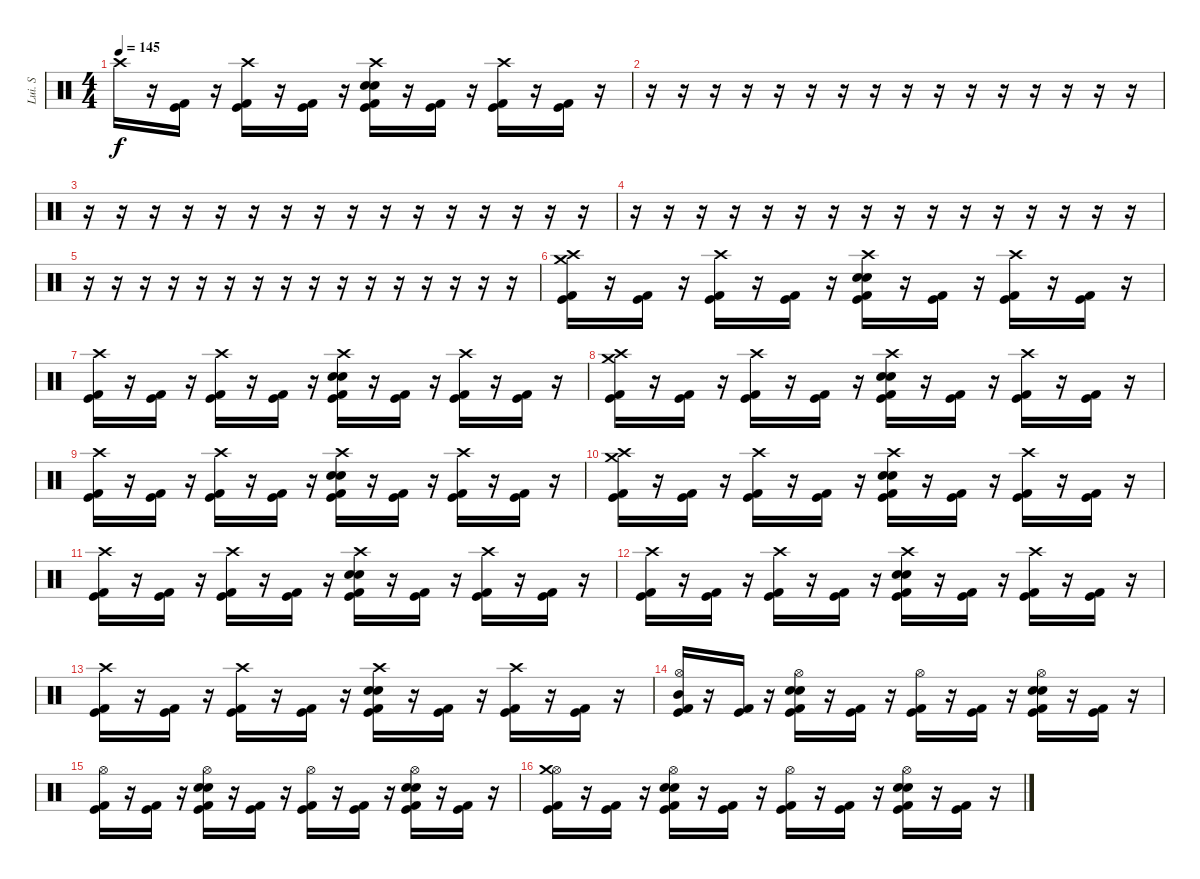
\track ("Lui. S" "Lui. S") {instrument percussion}
\staff {score}
\articulation defaults
\ts (4 4)
\tempo 145
\clef neutral
\ks c "Crash high (hit)".16{dy f}
r.16 ("Kick (hit)" "Kick (hit) 2").16 r.16 ("Crash high (hit)" "Kick (hit)" "Kick (hit) 2").16 r.16 ("Kick (hit)" "Kick (hit) 2").16 r.16 ("Crash high (hit)" "Electric Snare (hit)" "Snare (hit) 2" "Kick (hit)" "Kick (hit) 2").16 r.16 ("Kick (hit)" "Kick (hit) 2").16 r.16 ("Crash high (hit)" "Kick (hit)" "Kick (hit) 2").16 r.16 ("Kick (hit)" "Kick (hit) 2").16 r.16 |
r.16 r.16 r.16 r.16 r.16 r.16 r.16 r.16 r.16 r.16 r.16 r.16 r.16 r.16 r.16 r.16 |
r.16 r.16 r.16 r.16 r.16 r.16 r.16 r.16 r.16 r.16 r.16 r.16 r.16 r.16 r.16 r.16 |
r.16 r.16 r.16 r.16 r.16 r.16 r.16 r.16 r.16 r.16 r.16 r.16 r.16 r.16 r.16 r.16 |
r.16 r.16 r.16 r.16 r.16 r.16 r.16 r.16 r.16 r.16 r.16 r.16 r.16 r.16 r.16 r.16 |
("Crash high (hit)" "Crash medium (hit)" "Kick (hit)" "Kick (hit) 2").16 r.16 ("Kick (hit)" "Kick (hit) 2").16 r.16 ("Crash high (hit)" "Kick (hit)" "Kick (hit) 2").16 r.16 ("Kick (hit)" "Kick (hit) 2").16 r.16 ("Crash high (hit)" "Electric Snare (hit)" "Snare (hit) 2" "Kick (hit)" "Kick (hit) 2").16 r.16 ("Kick (hit)" "Kick (hit) 2").16 r.16 ("Crash high (hit)" "Kick (hit)" "Kick (hit) 2").16 r.16 ("Kick (hit)" "Kick (hit) 2").16 r.16 |
("Crash high (hit)" "Kick (hit)" "Kick (hit) 2").16 r.16 ("Kick (hit)" "Kick (hit) 2").16 r.16 ("Crash high (hit)" "Kick (hit)" "Kick (hit) 2").16 r.16 ("Kick (hit)" "Kick (hit) 2").16 r.16 ("Crash high (hit)" "Electric Snare (hit)" "Snare (hit) 2" "Kick (hit)" "Kick (hit) 2").16 r.16 ("Kick (hit)" "Kick (hit) 2").16 r.16 ("Crash high (hit)" "Kick (hit)" "Kick (hit) 2").16 r.16 ("Kick (hit)" "Kick (hit) 2").16 r.16 |
("Crash high (hit)" "Crash medium (hit)" "Kick (hit)" "Kick (hit) 2").16 r.16 ("Kick (hit)" "Kick (hit) 2").16 r.16 ("Crash high (hit)" "Kick (hit)" "Kick (hit) 2").16 r.16 ("Kick (hit)" "Kick (hit) 2").16 r.16 ("Crash high (hit)" "Electric Snare (hit)" "Snare (hit) 2" "Kick (hit)" "Kick (hit) 2").16 r.16 ("Kick (hit)" "Kick (hit) 2").16 r.16 ("Crash high (hit)" "Kick (hit)" "Kick (hit) 2").16 r.16 ("Kick (hit)" "Kick (hit) 2").16 r.16 |
("Crash high (hit)" "Kick (hit)" "Kick (hit) 2").16 r.16 ("Kick (hit)" "Kick (hit) 2").16 r.16 ("Crash high (hit)" "Kick (hit)" "Kick (hit) 2").16 r.16 ("Kick (hit)" "Kick (hit) 2").16 r.16 ("Crash high (hit)" "Electric Snare (hit)" "Snare (hit) 2" "Kick (hit)" "Kick (hit) 2").16 r.16 ("Kick (hit)" "Kick (hit) 2").16 r.16 ("Crash high (hit)" "Kick (hit)" "Kick (hit) 2").16 r.16 ("Kick (hit)" "Kick (hit) 2").16 r.16 |
("Crash high (hit)" "Crash medium (hit)" "Kick (hit)" "Kick (hit) 2").16 r.16 ("Kick (hit)" "Kick (hit) 2").16 r.16 ("Crash high (hit)" "Kick (hit)" "Kick (hit) 2").16 r.16 ("Kick (hit)" "Kick (hit) 2").16 r.16 ("Crash high (hit)" "Electric Snare (hit)" "Snare (hit) 2" "Kick (hit)" "Kick (hit) 2").16 r.16 ("Kick (hit)" "Kick (hit) 2").16 r.16 ("Crash high (hit)" "Kick (hit)" "Kick (hit) 2").16 r.16 ("Kick (hit)" "Kick (hit) 2").16 r.16 |
("Crash high (hit)" "Kick (hit)" "Kick (hit) 2").16 r.16 ("Kick (hit)" "Kick (hit) 2").16 r.16 ("Crash high (hit)" "Kick (hit)" "Kick (hit) 2").16 r.16 ("Kick (hit)" "Kick (hit) 2").16 r.16 ("Crash high (hit)" "Electric Snare (hit)" "Snare (hit) 2" "Kick (hit)" "Kick (hit) 2").16 r.16 ("Kick (hit)" "Kick (hit) 2").16 r.16 ("Crash high (hit)" "Kick (hit)" "Kick (hit) 2").16 r.16 ("Kick (hit)" "Kick (hit) 2").16 r.16 |
("Crash high (hit)" "Kick (hit)" "Kick (hit) 2").16 r.16 ("Kick (hit)" "Kick (hit) 2").16 r.16 ("Crash high (hit)" "Kick (hit)" "Kick (hit) 2").16 r.16 ("Kick (hit)" "Kick (hit) 2").16 r.16 ("Crash high (hit)" "Electric Snare (hit)" "Snare (hit) 2" "Kick (hit)" "Kick (hit) 2").16 r.16 ("Kick (hit)" "Kick (hit) 2").16 r.16 ("Crash high (hit)" "Kick (hit)" "Kick (hit) 2").16 r.16 ("Kick (hit)" "Kick (hit) 2").16 r.16 |
("Crash high (hit)" "Kick (hit)" "Kick (hit) 2").16 r.16 ("Kick (hit)" "Kick (hit) 2").16 r.16 ("Crash high (hit)" "Kick (hit)" "Kick (hit) 2").16 r.16 ("Kick (hit)" "Kick (hit) 2").16 r.16 ("Crash high (hit)" "Electric Snare (hit)" "Snare (hit) 2" "Kick (hit)" "Kick (hit) 2").16 r.16 ("Kick (hit)" "Kick (hit) 2").16 r.16 ("Crash high (hit)" "Kick (hit)" "Kick (hit) 2").16 r.16 ("Kick (hit)" "Kick (hit) 2").16 r.16 |
("Hi-Hat (open)" "Mid Tom (hit)" "Kick (hit)" "Kick (hit) 2").16 r.16 ("Kick (hit)" "Kick (hit) 2").16 r.16 ("Hi-Hat (open)" "Electric Snare (hit)" "Snare (hit) 2" "Kick (hit)" "Kick (hit) 2").16 r.16 ("Kick (hit)" "Kick (hit) 2").16 r.16 ("Hi-Hat (open)" "Kick (hit)" "Kick (hit) 2").16 r.16 ("Kick (hit)" "Kick (hit) 2").16 r.16 ("Hi-Hat (open)" "Electric Snare (hit)" "Snare (hit) 2" "Kick (hit)" "Kick (hit) 2").16 r.16 ("Kick (hit)" "Kick (hit) 2").16 r.16 |
("Hi-Hat (open)" "Kick (hit)" "Kick (hit) 2").16 r.16 ("Kick (hit)" "Kick (hit) 2").16 r.16 ("Hi-Hat (open)" "Electric Snare (hit)" "Snare (hit) 2" "Kick (hit)" "Kick (hit) 2").16 r.16 ("Kick (hit)" "Kick (hit) 2").16 r.16 ("Hi-Hat (open)" "Kick (hit)" "Kick (hit) 2").16 r.16 ("Kick (hit)" "Kick (hit) 2").16 r.16 ("Hi-Hat (open)" "Electric Snare (hit)" "Snare (hit) 2" "Kick (hit)" "Kick (hit) 2").16 r.16 ("Kick (hit)" "Kick (hit) 2").16 r.16 |
("Hi-Hat (open)" "Crash medium (hit)" "Kick (hit)" "Kick (hit) 2").16 r.16 ("Kick (hit)" "Kick (hit) 2").16 r.16 ("Hi-Hat (open)" "Electric Snare (hit)" "Snare (hit) 2" "Kick (hit)" "Kick (hit) 2").16 r.16 ("Kick (hit)" "Kick (hit) 2").16 r.16 ("Hi-Hat (open)" "Kick (hit)" "Kick (hit) 2").16 r.16 ("Kick (hit)" "Kick (hit) 2").16 r.16 ("Hi-Hat (open)" "Electric Snare (hit)" "Snare (hit) 2" "Kick (hit)" "Kick (hit) 2").16 r.16 ("Kick (hit)" "Kick (hit) 2").16 r.16
